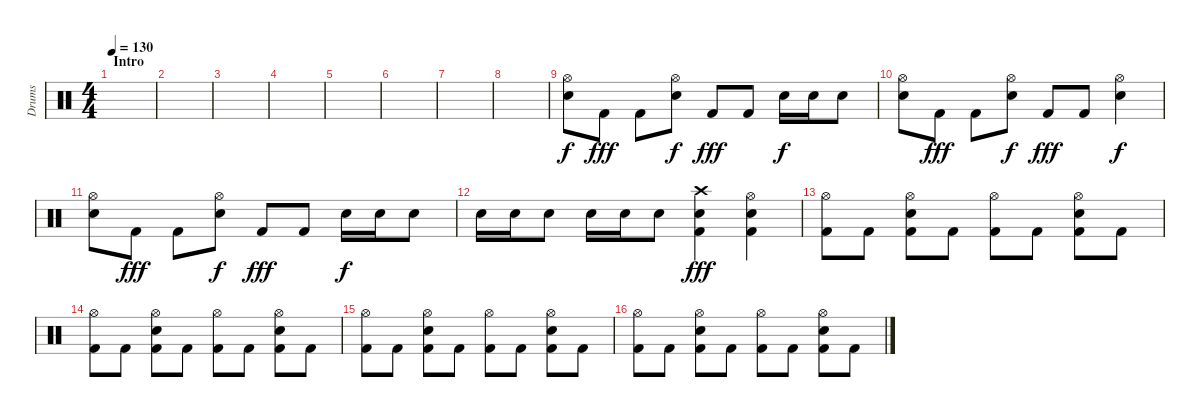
\track ("Drums" "Drums") {instrument percussion}
\staff {score}
\articulation defaults
\ts (4 4)
\section ("" "Intro")
\tempo 130
\clef neutral
\ks c
|
|
|
|
|
|
|
|
("Hi-Hat (open)" "Snare (hit) 2").8 "Kick (hit) 2".8{dy fff} "Kick (hit) 2".8 ("Hi-Hat (open)" "Snare (hit) 2").8{dy f} "Kick (hit) 2".8{dy fff} "Kick (hit) 2".8 "Electric Snare (hit)".16{dy f} "Electric Snare (hit)".16 "Electric Snare (hit)".8 |
("Hi-Hat (open)" "Snare (hit) 2").8 "Kick (hit) 2".8{dy fff} "Kick (hit) 2".8 ("Hi-Hat (open)" "Snare (hit) 2").8{dy f} "Kick (hit) 2".8{dy fff} "Kick (hit) 2".8 ("Hi-Hat (open)" "Snare (hit) 2").4{dy f} |
("Hi-Hat (open)" "Snare (hit) 2").8 "Kick (hit) 2".8{dy fff} "Kick (hit) 2".8 ("Hi-Hat (open)" "Snare (hit) 2").8{dy f} "Kick (hit) 2".8{dy fff} "Kick (hit) 2".8 "Electric Snare (hit)".16{dy f} "Electric Snare (hit)".16 "Electric Snare (hit)".8 |
"Electric Snare (hit)".16 "Electric Snare (hit)".16 "Electric Snare (hit)".8 "Electric Snare (hit)".16 "Electric Snare (hit)".16 "Electric Snare (hit)".8 ("Crash high (hit)" "Snare (hit) 2" "Kick (hit) 2").4{dy fff} ("Hi-Hat (open)" "Snare (hit) 2" "Kick (hit) 2").4 |
("Hi-Hat (open)" "Kick (hit) 2").8 "Kick (hit) 2".8 ("Hi-Hat (open)" "Snare (hit) 2" "Kick (hit) 2").8 "Kick (hit) 2".8 ("Hi-Hat (open)" "Kick (hit) 2").8 "Kick (hit) 2".8 ("Hi-Hat (open)" "Snare (hit) 2" "Kick (hit) 2").8 "Kick (hit) 2".8 |
("Hi-Hat (open)" "Kick (hit) 2").8 "Kick (hit) 2".8 ("Hi-Hat (open)" "Snare (hit) 2" "Kick (hit) 2").8 "Kick (hit) 2".8 ("Hi-Hat (open)" "Kick (hit) 2").8 "Kick (hit) 2".8 ("Hi-Hat (open)" "Snare (hit) 2" "Kick (hit) 2").8 "Kick (hit) 2".8 |
("Hi-Hat (open)" "Kick (hit) 2").8 "Kick (hit) 2".8 ("Hi-Hat (open)" "Snare (hit) 2" "Kick (hit) 2").8 "Kick (hit) 2".8 ("Hi-Hat (open)" "Kick (hit) 2").8 "Kick (hit) 2".8 ("Hi-Hat (open)" "Snare (hit) 2" "Kick (hit) 2").8 "Kick (hit) 2".8 |
("Hi-Hat (open)" "Kick (hit) 2").8 "Kick (hit) 2".8 ("Hi-Hat (open)" "Snare (hit) 2" "Kick (hit) 2").8 "Kick (hit) 2".8 ("Hi-Hat (open)" "Kick (hit) 2").8 "Kick (hit) 2".8 ("Hi-Hat (open)" "Snare (hit) 2" "Kick (hit) 2").8 "Kick (hit) 2".8
